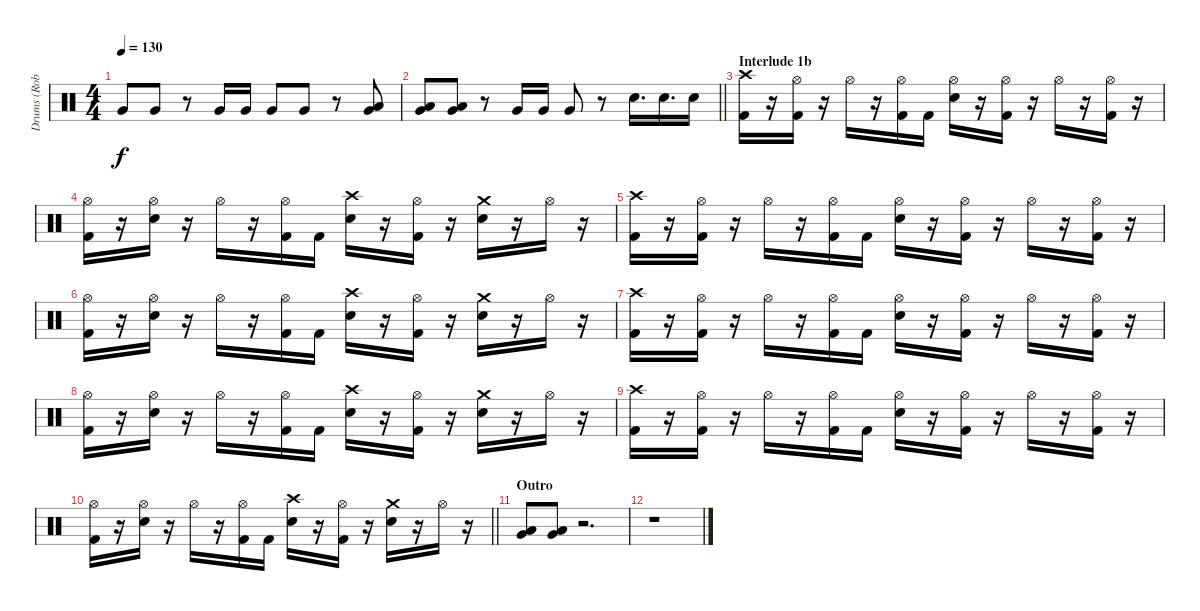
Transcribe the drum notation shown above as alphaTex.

\track ("Drums (Rob)" "Drums (Rob") {instrument percussion}
\staff {score}
\articulation defaults
\ts (4 4)
\tempo 130
\clef neutral
\ks c "Very Low Tom (hit)".8{dy f} "Very Low Tom (hit)".8
r.8 "Very Low Tom (hit)".16 "Very Low Tom (hit)".16 "Very Low Tom (hit)".8 "Very Low Tom (hit)".8 r.8 ("Very Low Tom (hit)" "Low Tom (hit)").8 |
\barLineRight lightlight
("Very Low Tom (hit)" "Low Tom (hit)").8 ("Very Low Tom (hit)" "Low Tom (hit)").8 r.8 "Very Low Tom (hit)".16 "Very Low Tom (hit)".16 "Very Low Tom (hit)".8 r.8 "Electric Snare (hit)".16{d} "Electric Snare (hit)".16{d} "Electric Snare (hit)".16 |
\section ("" "Interlude 1b")
("Crash high (hit)" "Kick (hit) 2").16 r.16 ("Hi-Hat (open)" "Kick (hit) 2").16 r.16 "Hi-Hat (open)".16 r.16 ("Hi-Hat (open)" "Kick (hit) 2").16 "Kick (hit) 2".16 ("Hi-Hat (open)" "Electric Snare (hit)").16 r.16 ("Hi-Hat (open)" "Kick (hit) 2").16 r.16 "Hi-Hat (open)".16 r.16 ("Hi-Hat (open)" "Kick (hit) 2").16 r.16 |
("Hi-Hat (open)" "Kick (hit) 2").16 r.16 ("Hi-Hat (open)" "Electric Snare (hit)").16 r.16 "Hi-Hat (open)".16 r.16 ("Hi-Hat (open)" "Kick (hit) 2").16 "Kick (hit) 2".16 ("Crash high (hit)" "Electric Snare (hit)").16 r.16 ("Hi-Hat (open)" "Kick (hit) 2").16 r.16 ("Crash medium (hit)" "Electric Snare (hit)").16 r.16 "Hi-Hat (open)".16 r.16 |
("Crash high (hit)" "Kick (hit) 2").16 r.16 ("Hi-Hat (open)" "Kick (hit) 2").16 r.16 "Hi-Hat (open)".16 r.16 ("Hi-Hat (open)" "Kick (hit) 2").16 "Kick (hit) 2".16 ("Hi-Hat (open)" "Electric Snare (hit)").16 r.16 ("Hi-Hat (open)" "Kick (hit) 2").16 r.16 "Hi-Hat (open)".16 r.16 ("Hi-Hat (open)" "Kick (hit) 2").16 r.16 |
("Hi-Hat (open)" "Kick (hit) 2").16 r.16 ("Hi-Hat (open)" "Electric Snare (hit)").16 r.16 "Hi-Hat (open)".16 r.16 ("Hi-Hat (open)" "Kick (hit) 2").16 "Kick (hit) 2".16 ("Crash high (hit)" "Electric Snare (hit)").16 r.16 ("Hi-Hat (open)" "Kick (hit) 2").16 r.16 ("Crash medium (hit)" "Electric Snare (hit)").16 r.16 "Hi-Hat (open)".16 r.16 |
("Crash high (hit)" "Kick (hit) 2").16 r.16 ("Hi-Hat (open)" "Kick (hit) 2").16 r.16 "Hi-Hat (open)".16 r.16 ("Hi-Hat (open)" "Kick (hit) 2").16 "Kick (hit) 2".16 ("Hi-Hat (open)" "Electric Snare (hit)").16 r.16 ("Hi-Hat (open)" "Kick (hit) 2").16 r.16 "Hi-Hat (open)".16 r.16 ("Hi-Hat (open)" "Kick (hit) 2").16 r.16 |
("Hi-Hat (open)" "Kick (hit) 2").16 r.16 ("Hi-Hat (open)" "Electric Snare (hit)").16 r.16 "Hi-Hat (open)".16 r.16 ("Hi-Hat (open)" "Kick (hit) 2").16 "Kick (hit) 2".16 ("Crash high (hit)" "Electric Snare (hit)").16 r.16 ("Hi-Hat (open)" "Kick (hit) 2").16 r.16 ("Crash medium (hit)" "Electric Snare (hit)").16 r.16 "Hi-Hat (open)".16 r.16 |
("Crash high (hit)" "Kick (hit) 2").16 r.16 ("Hi-Hat (open)" "Kick (hit) 2").16 r.16 "Hi-Hat (open)".16 r.16 ("Hi-Hat (open)" "Kick (hit) 2").16 "Kick (hit) 2".16 ("Hi-Hat (open)" "Electric Snare (hit)").16 r.16 ("Hi-Hat (open)" "Kick (hit) 2").16 r.16 "Hi-Hat (open)".16 r.16 ("Hi-Hat (open)" "Kick (hit) 2").16 r.16 |
\barLineRight lightlight
("Hi-Hat (open)" "Kick (hit) 2").16 r.16 ("Hi-Hat (open)" "Electric Snare (hit)").16 r.16 "Hi-Hat (open)".16 r.16 ("Hi-Hat (open)" "Kick (hit) 2").16 "Kick (hit) 2".16 ("Crash high (hit)" "Electric Snare (hit)").16 r.16 ("Hi-Hat (open)" "Kick (hit) 2").16 r.16 ("Crash medium (hit)" "Electric Snare (hit)").16 r.16 "Hi-Hat (open)".16 r.16 |
\section ("" "Outro")
("Low Tom (hit)" "Very Low Tom (hit)").8 ("Low Tom (hit)" "Very Low Tom (hit)").8 r.2{d} |
r.1
